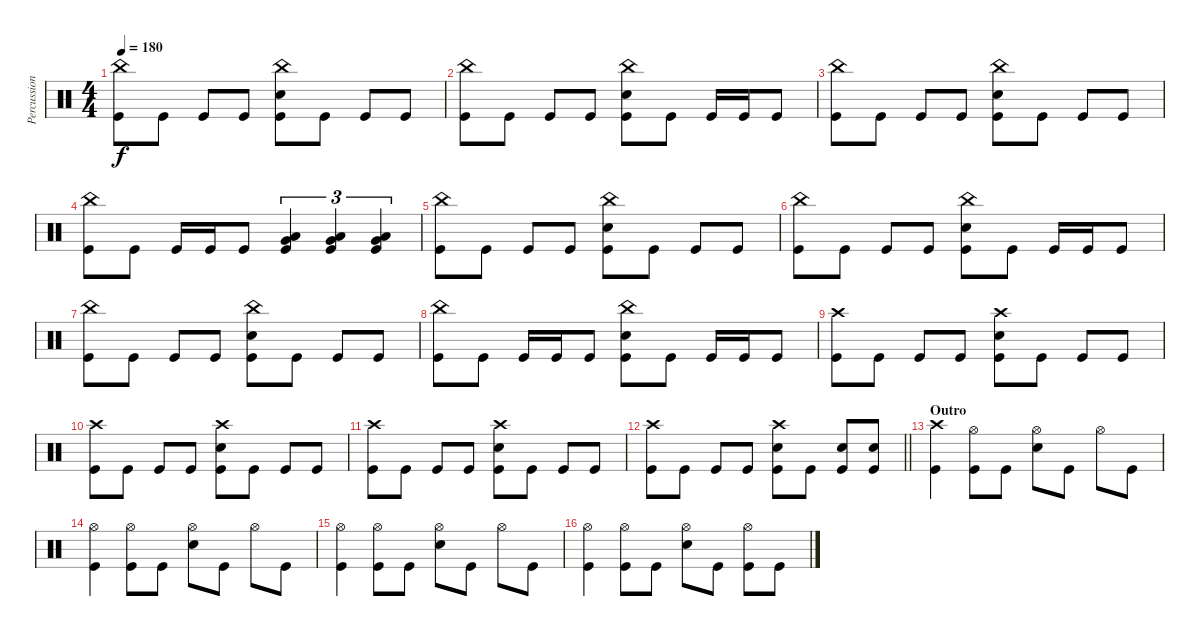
\track ("Percussion" "Percussion") {instrument percussion}
\staff {score}
\articulation defaults
\ts (4 4)
\tempo 180
\clef neutral
\ks c
("China (hit)" "Kick (hit)").8{dy f} "Kick (hit)".8 "Kick (hit)".8 "Kick (hit)".8 ("China (hit)" "Kick (hit)" "Snare (hit) 2").8 "Kick (hit)".8 "Kick (hit)".8 "Kick (hit)".8 |
("China (hit)" "Kick (hit)").8 "Kick (hit)".8 "Kick (hit)".8 "Kick (hit)".8 ("China (hit)" "Kick (hit)" "Snare (hit) 2").8 "Kick (hit)".8 "Kick (hit)".16 "Kick (hit)".16 "Kick (hit)".8 |
("China (hit)" "Kick (hit)").8 "Kick (hit)".8 "Kick (hit)".8 "Kick (hit)".8 ("China (hit)" "Kick (hit)" "Snare (hit) 2").8 "Kick (hit)".8 "Kick (hit)".8 "Kick (hit)".8 |
("China (hit)" "Kick (hit)").8 "Kick (hit)".8 "Kick (hit)".16 "Kick (hit)".16 "Kick (hit)".8 ("Kick (hit)" "Low Tom (hit)" "Very Low Tom (hit)").4{tu (3 2)} ("Kick (hit)" "Low Tom (hit)" "Very Low Tom (hit)").4{tu (3 2)} ("Kick (hit)" "Low Tom (hit)" "Very Low Tom (hit)").4{tu (3 2)} |
("China (hit)" "Kick (hit)").8 "Kick (hit)".8 "Kick (hit)".8 "Kick (hit)".8 ("China (hit)" "Kick (hit)" "Snare (hit) 2").8 "Kick (hit)".8 "Kick (hit)".8 "Kick (hit)".8 |
("China (hit)" "Kick (hit)").8 "Kick (hit)".8 "Kick (hit)".8 "Kick (hit)".8 ("China (hit)" "Kick (hit)" "Snare (hit) 2").8 "Kick (hit)".8 "Kick (hit)".16 "Kick (hit)".16 "Kick (hit)".8 |
("China (hit)" "Kick (hit)").8 "Kick (hit)".8 "Kick (hit)".8 "Kick (hit)".8 ("China (hit)" "Kick (hit)" "Snare (hit) 2").8 "Kick (hit)".8 "Kick (hit)".8 "Kick (hit)".8 |
("China (hit)" "Kick (hit)").8 "Kick (hit)".8 "Kick (hit)".16 "Kick (hit)".16 "Kick (hit)".8 ("China (hit)" "Kick (hit)" "Snare (hit) 2").8 "Kick (hit)".8 "Kick (hit)".16 "Kick (hit)".16 "Kick (hit)".8 |
("Crash high (hit)" "Kick (hit)").8 "Kick (hit)".8 "Kick (hit)".8 "Kick (hit)".8 ("Snare (hit) 2" "Crash high (hit)" "Kick (hit)").8 "Kick (hit)".8 "Kick (hit)".8 "Kick (hit)".8 |
("Crash high (hit)" "Kick (hit)").8 "Kick (hit)".8 "Kick (hit)".8 "Kick (hit)".8 ("Snare (hit) 2" "Crash high (hit)" "Kick (hit)").8 "Kick (hit)".8 "Kick (hit)".8 "Kick (hit)".8 |
("Crash high (hit)" "Kick (hit)").8 "Kick (hit)".8 "Kick (hit)".8 "Kick (hit)".8 ("Snare (hit) 2" "Crash high (hit)" "Kick (hit)").8 "Kick (hit)".8 "Kick (hit)".8 "Kick (hit)".8 |
\barLineRight lightlight
("Crash high (hit)" "Kick (hit)").8 "Kick (hit)".8 "Kick (hit)".8 "Kick (hit)".8 ("Snare (hit) 2" "Crash high (hit)" "Kick (hit)").8 "Kick (hit)".8 ("Snare (hit) 2" "Kick (hit)").8 ("Snare (hit) 2" "Kick (hit)").8 |
\section ("" "Outro")
("Crash high (hit)" "Kick (hit)").4 ("Hi-Hat (open)" "Kick (hit)").8 "Kick (hit)".8 ("Snare (hit) 2" "Hi-Hat (open)").8 "Kick (hit)".8 "Hi-Hat (open)".8 "Kick (hit)".8 |
("Hi-Hat (open)" "Kick (hit)").4 ("Hi-Hat (open)" "Kick (hit)").8 "Kick (hit)".8 ("Snare (hit) 2" "Hi-Hat (open)").8 "Kick (hit)".8 "Hi-Hat (open)".8 "Kick (hit)".8 |
("Hi-Hat (open)" "Kick (hit)").4 ("Hi-Hat (open)" "Kick (hit)").8 "Kick (hit)".8 ("Snare (hit) 2" "Hi-Hat (open)").8 "Kick (hit)".8 "Hi-Hat (open)".8 "Kick (hit)".8 |
("Hi-Hat (open)" "Kick (hit)").4 ("Hi-Hat (open)" "Kick (hit)").8 "Kick (hit)".8 ("Snare (hit) 2" "Hi-Hat (open)").8 "Kick (hit)".8 ("Hi-Hat (open)" "Kick (hit)").8 "Kick (hit)".8
